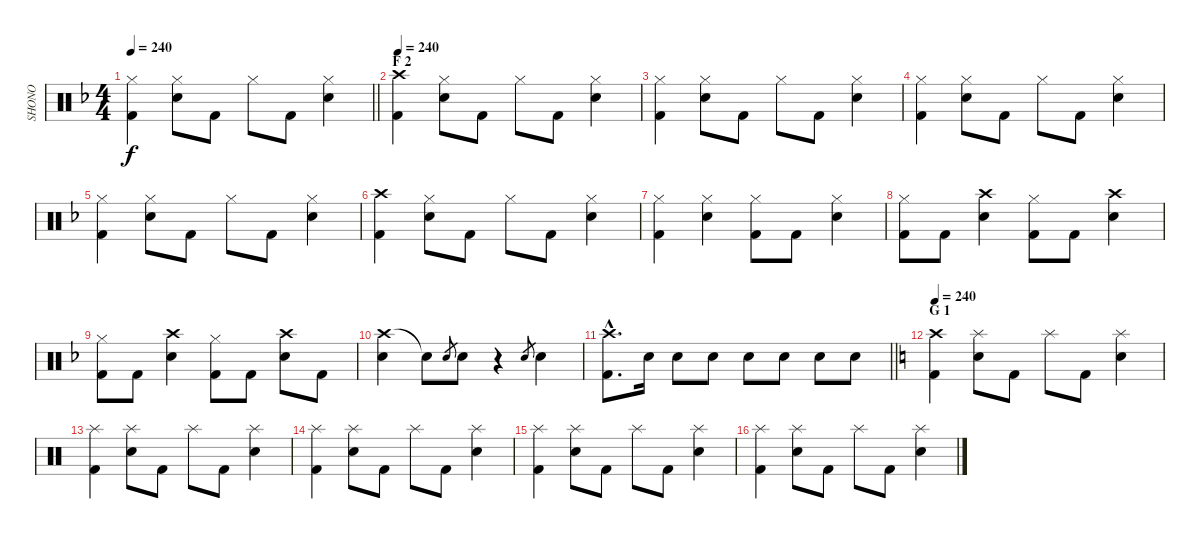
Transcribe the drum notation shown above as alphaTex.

\track ("SHONO" "SHONO") {instrument percussion}
\staff {score}
\articulation defaults
\ts (4 4)
\tempo 240
\clef neutral
\barLineRight lightlight
\ks f
("Hi-Hat (closed)" "Kick (hit) 2").4{dy f} ("Hi-Hat (closed)" "Snare (hit) 2").8 "Kick (hit) 2".8 "Hi-Hat (closed)".8 "Kick (hit) 2".8 ("Hi-Hat (closed)" "Snare (hit) 2").4 |
\section ("" "F 2")
\tempo 240
("Crash high (hit)" "Kick (hit) 2").4 ("Hi-Hat (closed)" "Snare (hit) 2").8 "Kick (hit) 2".8 "Hi-Hat (closed)".8 "Kick (hit) 2".8 ("Hi-Hat (closed)" "Snare (hit) 2").4 |
("Hi-Hat (closed)" "Kick (hit) 2").4 ("Hi-Hat (closed)" "Snare (hit) 2").8 "Kick (hit) 2".8 "Hi-Hat (closed)".8 "Kick (hit) 2".8 ("Hi-Hat (closed)" "Snare (hit) 2").4 |
("Hi-Hat (closed)" "Kick (hit) 2").4 ("Hi-Hat (closed)" "Snare (hit) 2").8 "Kick (hit) 2".8 "Hi-Hat (closed)".8 "Kick (hit) 2".8 ("Hi-Hat (closed)" "Snare (hit) 2").4 |
("Hi-Hat (closed)" "Kick (hit) 2").4 ("Hi-Hat (closed)" "Snare (hit) 2").8 "Kick (hit) 2".8 "Hi-Hat (closed)".8 "Kick (hit) 2".8 ("Hi-Hat (closed)" "Snare (hit) 2").4 |
("Crash high (hit)" "Kick (hit) 2").4 ("Hi-Hat (closed)" "Snare (hit) 2").8 "Kick (hit) 2".8 "Hi-Hat (closed)".8 "Kick (hit) 2".8 ("Hi-Hat (closed)" "Snare (hit) 2").4 |
("Hi-Hat (closed)" "Kick (hit) 2").4 ("Hi-Hat (closed)" "Snare (hit) 2").4 ("Hi-Hat (closed)" "Kick (hit) 2").8 "Kick (hit) 2".8 ("Hi-Hat (closed)" "Snare (hit) 2").4 |
("Hi-Hat (closed)" "Kick (hit) 2").8 "Kick (hit) 2".8 ("Crash high (hit)" "Snare (hit) 2").4 ("Hi-Hat (closed)" "Kick (hit) 2").8 "Kick (hit) 2".8 ("Crash high (hit)" "Snare (hit) 2").4 |
("Hi-Hat (closed)" "Kick (hit) 2").8 "Kick (hit) 2".8 ("Crash high (hit)" "Snare (hit) 2").4 ("Hi-Hat (closed)" "Kick (hit) 2").8 "Kick (hit) 2".8 ("Crash high (hit)" "Snare (hit) 2").8 "Kick (hit) 2".8 |
("Crash high (hit)" "Snare (hit) 2").4 "Snare (hit)"{t}.8 "Snare (hit) 2".8{gr} "Snare (hit) 2".8 r.4 "Snare (hit) 2".8{gr} "Snare (hit) 2".4 |
\barLineRight lightlight
("Crash high (hit)"{hac} "Kick (hit) 2"{hac}).8{d} "Snare (hit) 2".16 "Snare (hit) 2".8 "Snare (hit) 2".8 "Snare (hit) 2".8 "Snare (hit) 2".8 "Snare (hit) 2".8 "Snare (hit) 2".8 |
\section ("" "G 1")
\tempo 240
\ks c
("Crash high (hit)" "Kick (hit) 2").4 ("Splash (hit)" "Snare (hit) 2").8 "Kick (hit) 2".8 "Splash (hit)".8 "Kick (hit) 2".8 ("Splash (hit)" "Snare (hit) 2").4 |
("Splash (hit)" "Kick (hit) 2").4 ("Splash (hit)" "Snare (hit) 2").8 "Kick (hit) 2".8 "Splash (hit)".8 "Kick (hit) 2".8 ("Splash (hit)" "Snare (hit) 2").4 |
("Splash (hit)" "Kick (hit) 2").4 ("Splash (hit)" "Snare (hit) 2").8 "Kick (hit) 2".8 "Splash (hit)".8 "Kick (hit) 2".8 ("Splash (hit)" "Snare (hit) 2").4 |
("Splash (hit)" "Kick (hit) 2").4 ("Splash (hit)" "Snare (hit) 2").8 "Kick (hit) 2".8 "Splash (hit)".8 "Kick (hit) 2".8 ("Splash (hit)" "Snare (hit) 2").4 |
("Splash (hit)" "Kick (hit) 2").4 ("Splash (hit)" "Snare (hit) 2").8 "Kick (hit) 2".8 "Splash (hit)".8 "Kick (hit) 2".8 ("Splash (hit)" "Snare (hit) 2").4
